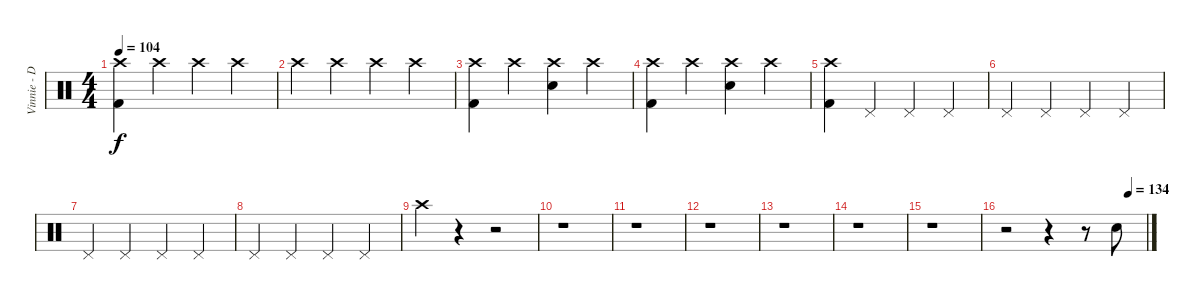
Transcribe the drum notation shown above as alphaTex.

\track ("Vinnie - Drums" "Vinnie - D") {instrument percussion}
\staff {score}
\articulation defaults
\ts (4 4)
\tempo 104
\clef neutral
\ks c
("Crash high (hit)" "Kick (hit) 2").4{dy f} "Crash high (hit)".4 "Crash high (hit)".4 "Crash high (hit)".4 |
"Crash high (hit)".4 "Crash high (hit)".4 "Crash high (hit)".4 "Crash high (hit)".4 |
("Crash high (hit)" "Kick (hit) 2").4 "Crash high (hit)".4 ("Crash high (hit)" "Electric Snare (hit)").4 "Crash high (hit)".4 |
("Crash high (hit)" "Kick (hit) 2").4 "Crash high (hit)".4 ("Crash high (hit)" "Electric Snare (hit)").4 "Crash high (hit)".4 |
("Crash high (hit)" "Kick (hit) 2").4 "Pedal Hi-Hat (hit)".4 "Pedal Hi-Hat (hit)".4 "Pedal Hi-Hat (hit)".4 |
"Pedal Hi-Hat (hit)".4 "Pedal Hi-Hat (hit)".4 "Pedal Hi-Hat (hit)".4 "Pedal Hi-Hat (hit)".4 |
"Pedal Hi-Hat (hit)".4 "Pedal Hi-Hat (hit)".4 "Pedal Hi-Hat (hit)".4 "Pedal Hi-Hat (hit)".4 |
"Pedal Hi-Hat (hit)".4 "Pedal Hi-Hat (hit)".4 "Pedal Hi-Hat (hit)".4 "Pedal Hi-Hat (hit)".4 |
"Crash high (hit)".4 r.4 r.2 |
r.1 |
r.1 |
r.1 |
r.1 |
r.1 |
r.1 |
\tempo (134 0.875)
r.2 r.4 r.8 "Electric Snare (hit)".8
